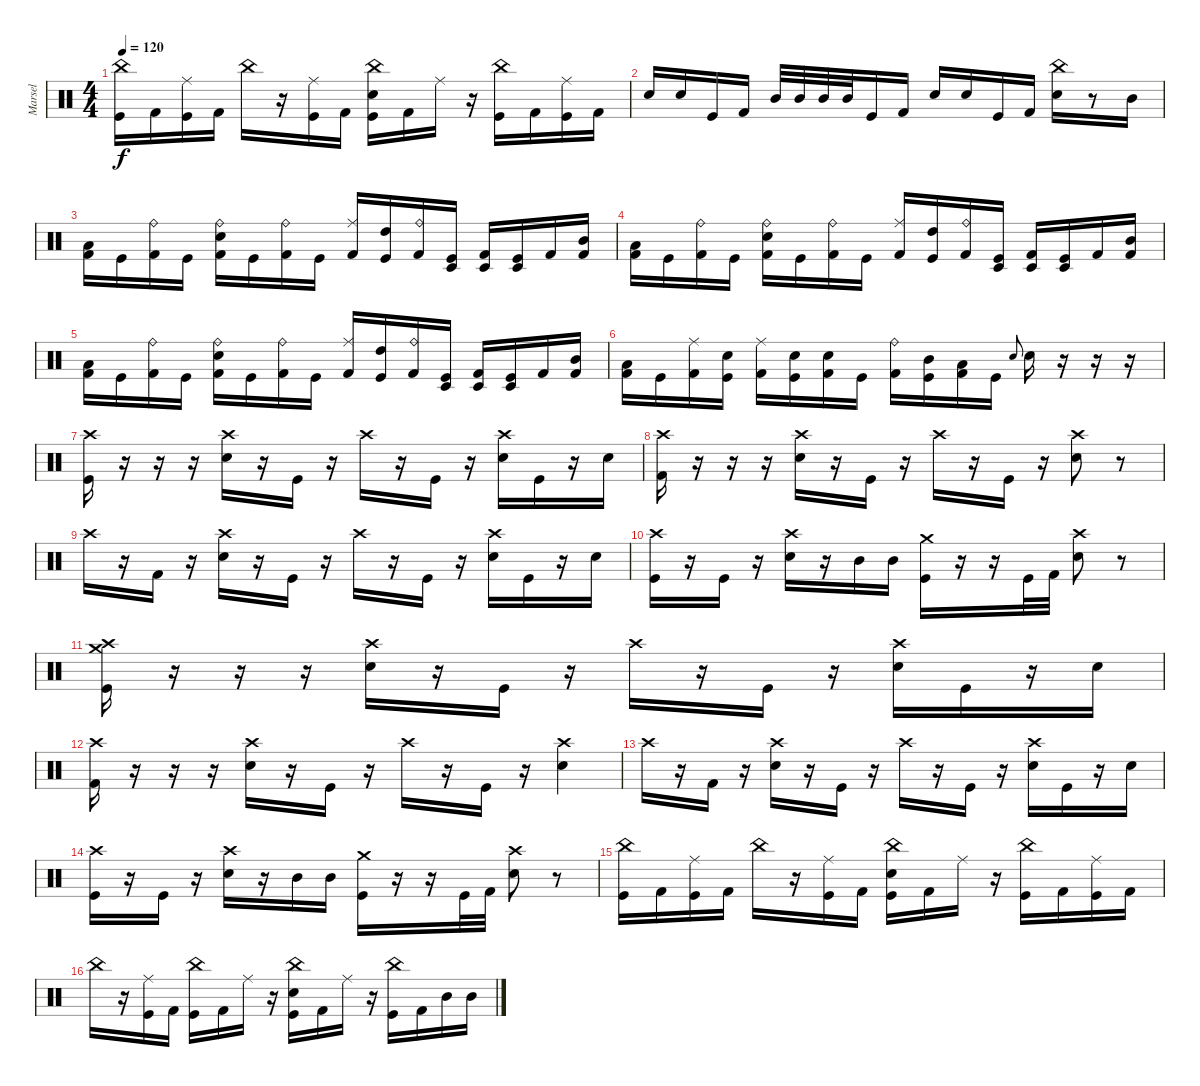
\track ("Marsel" "Marsel") {instrument percussion}
\staff {score}
\articulation defaults
\ts (4 4)
\tempo 120
\clef neutral
\ks c
("China (hit)" "Kick (hit)").16{dy f} "Kick (hit) 2".16 ("Ride (middle)" "Kick (hit)").16 "Kick (hit) 2".16 "China (hit)".16 r.16 ("Ride (middle)" "Kick (hit)").16 "Kick (hit) 2".16 ("China (hit)" "Snare (hit) 2" "Kick (hit)").16 "Kick (hit) 2".16 "Ride (middle)".16 r.16 ("China (hit)" "Kick (hit)").16 "Kick (hit) 2".16 ("Ride (middle)" "Kick (hit)").16 "Kick (hit) 2".16 |
"Snare (hit) 2".16 "Snare (hit) 2".16 "Kick (hit)".16 "Kick (hit) 2".16 "Mid Tom (hit)".32 "Mid Tom (hit)".32 "Mid Tom (hit)".32 "Mid Tom (hit)".32 "Kick (hit)".16 "Kick (hit) 2".16 "Snare (hit) 2".16 "Snare (hit) 2".16 "Kick (hit)".16 "Kick (hit) 2".16 ("China (hit)" "Snare (hit) 2").16 r.8 "Mid Tom (hit)".16 |
("Low Tom (hit)" "Kick (hit) 2").16 "Kick (hit)".16 ("Ride (bell)" "Kick (hit) 2").16 "Kick (hit)".16 ("Ride (bell)" "Snare (hit) 2" "Kick (hit) 2").16 "Kick (hit)".16 ("Ride (bell)" "Kick (hit) 2").16 "Kick (hit)".16 ("Ride (middle)" "Kick (hit) 2").16 ("High Tom (hit)" "Kick (hit)").16 ("Ride (bell)" "Kick (hit) 2").16 ("Timbale low (hit)" "Kick (hit)").16 ("Timbale low (hit)" "Kick (hit) 2").16 ("Timbale low (hit)" "Kick (hit)").16 "Kick (hit) 2".16 ("Mid Tom (hit)" "Kick (hit) 2").16 |
("Low Tom (hit)" "Kick (hit) 2").16 "Kick (hit)".16 ("Ride (bell)" "Kick (hit) 2").16 "Kick (hit)".16 ("Ride (bell)" "Snare (hit) 2" "Kick (hit) 2").16 "Kick (hit)".16 ("Ride (bell)" "Kick (hit) 2").16 "Kick (hit)".16 ("Ride (middle)" "Kick (hit) 2").16 ("High Tom (hit)" "Kick (hit)").16 ("Ride (bell)" "Kick (hit) 2").16 ("Timbale low (hit)" "Kick (hit)").16 ("Timbale low (hit)" "Kick (hit) 2").16 ("Timbale low (hit)" "Kick (hit)").16 "Kick (hit) 2".16 ("Mid Tom (hit)" "Kick (hit) 2").16 |
("Low Tom (hit)" "Kick (hit) 2").16 "Kick (hit)".16 ("Ride (bell)" "Kick (hit) 2").16 "Kick (hit)".16 ("Ride (bell)" "Snare (hit) 2" "Kick (hit) 2").16 "Kick (hit)".16 ("Ride (bell)" "Kick (hit) 2").16 "Kick (hit)".16 ("Ride (middle)" "Kick (hit) 2").16 ("High Tom (hit)" "Kick (hit)").16 ("Ride (bell)" "Kick (hit) 2").16 ("Timbale low (hit)" "Kick (hit)").16 ("Timbale low (hit)" "Kick (hit) 2").16 ("Timbale low (hit)" "Kick (hit)").16 "Kick (hit) 2".16 ("Mid Tom (hit)" "Kick (hit) 2").16 |
("Low Tom (hit)" "Kick (hit) 2").16 "Kick (hit)".16 ("Ride (middle)" "Kick (hit) 2").16 ("Snare (hit) 2" "Kick (hit)").16 ("Ride (middle)" "Kick (hit) 2").16 ("Snare (hit) 2" "Kick (hit)").16 ("Snare (hit) 2" "Kick (hit) 2").16 "Kick (hit)".16 ("Ride (bell)" "Kick (hit) 2").16 ("Mid Tom (hit)" "Kick (hit)").16 ("Low Tom (hit)" "Kick (hit) 2").16 "Kick (hit)".16 "Snare (hit) 2".8{gr onbeat} "Snare (hit) 2".16 r.16 r.16 r.16 |
("Crash high (hit)" "Kick (hit)").16 r.16 r.16 r.16 ("Crash high (hit)" "Snare (hit) 2").16 r.16 "Kick (hit)".16 r.16 "Crash high (hit)".16 r.16 "Kick (hit)".16 r.16 ("Crash high (hit)" "Snare (hit) 2").16 "Kick (hit)".16 r.16 "Snare (hit) 2".16 |
("Crash high (hit)" "Kick (hit) 2").16 r.16 r.16 r.16 ("Crash high (hit)" "Snare (hit) 2").16 r.16 "Kick (hit)".16 r.16 "Crash high (hit)".16 r.16 "Kick (hit)".16 r.16 ("Crash high (hit)" "Snare (hit) 2").8 r.8 |
"Crash high (hit)".16 r.16 "Kick (hit) 2".16 r.16 ("Crash high (hit)" "Snare (hit) 2").16 r.16 "Kick (hit)".16 r.16 "Crash high (hit)".16 r.16 "Kick (hit)".16 r.16 ("Crash high (hit)" "Snare (hit) 2").16 "Kick (hit)".16 r.16 "Snare (hit) 2".16 |
("Crash high (hit)" "Kick (hit)").16 r.16 "Kick (hit)".16 r.16 ("Crash high (hit)" "Snare (hit) 2").16 r.16 "Mid Tom (hit)".16 "Mid Tom (hit)".16 ("Crash medium (hit)" "Kick (hit)").16 r.16 r.16 "Kick (hit)".32 "Kick (hit) 2".32 ("Crash high (hit)" "Snare (hit) 2").8 r.8 |
("Crash high (hit)" "Crash medium (hit)" "Kick (hit)").16 r.16 r.16 r.16 ("Crash high (hit)" "Snare (hit) 2").16 r.16 "Kick (hit)".16 r.16 "Crash high (hit)".16 r.16 "Kick (hit)".16 r.16 ("Crash high (hit)" "Snare (hit) 2").16 "Kick (hit)".16 r.16 "Snare (hit) 2".16 |
("Crash high (hit)" "Kick (hit) 2").16 r.16 r.16 r.16 ("Crash high (hit)" "Snare (hit) 2").16 r.16 "Kick (hit)".16 r.16 "Crash high (hit)".16 r.16 "Kick (hit)".16 r.16 ("Crash high (hit)" "Snare (hit) 2").4 |
"Crash high (hit)".16 r.16 "Kick (hit) 2".16 r.16 ("Crash high (hit)" "Snare (hit) 2").16 r.16 "Kick (hit)".16 r.16 "Crash high (hit)".16 r.16 "Kick (hit)".16 r.16 ("Crash high (hit)" "Snare (hit) 2").16 "Kick (hit)".16 r.16 "Snare (hit) 2".16 |
("Crash high (hit)" "Kick (hit)").16 r.16 "Kick (hit)".16 r.16 ("Crash high (hit)" "Snare (hit) 2").16 r.16 "Mid Tom (hit)".16 "Mid Tom (hit)".16 ("Crash medium (hit)" "Kick (hit)").16 r.16 r.16 "Kick (hit)".32 "Kick (hit) 2".32 ("Crash high (hit)" "Snare (hit) 2").8 r.8 |
("China (hit)" "Kick (hit)").16 "Kick (hit) 2".16 ("Ride (middle)" "Kick (hit)").16 "Kick (hit) 2".16 "China (hit)".16 r.16 ("Ride (middle)" "Kick (hit)").16 "Kick (hit) 2".16 ("China (hit)" "Snare (hit) 2" "Kick (hit)").16 "Kick (hit) 2".16 "Ride (middle)".16 r.16 ("China (hit)" "Kick (hit)").16 "Kick (hit) 2".16 ("Ride (middle)" "Kick (hit)").16 "Kick (hit) 2".16 |
"China (hit)".16 r.16 ("Ride (middle)" "Kick (hit)").16 "Kick (hit) 2".16 ("China (hit)" "Kick (hit)").16 "Kick (hit) 2".16 "Ride (middle)".16 r.16 ("China (hit)" "Snare (hit) 2" "Kick (hit)").16 "Kick (hit) 2".16 "Ride (middle)".16 r.16 ("China (hit)" "Kick (hit)").16 "Kick (hit) 2".16 "Mid Tom (hit)".16 "Mid Tom (hit)".16
